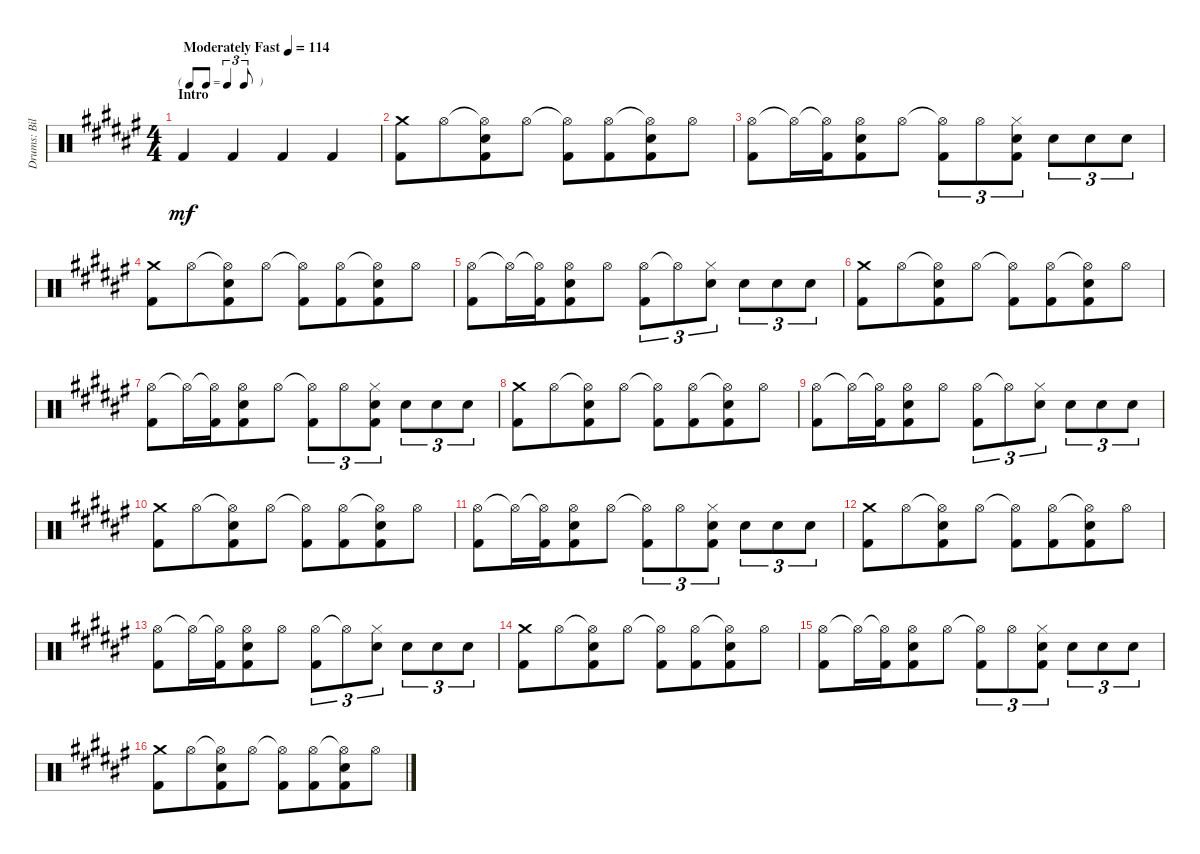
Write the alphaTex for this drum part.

\track ("Drums: Bill" "Drums: Bil") {instrument percussion}
\staff {score}
\articulation defaults
\ts (4 4)
\tf triplet8th
\section ("" "Intro")
\tempo (114 "Moderately Fast")
\clef neutral
\ks f# "Kick (hit) 2".4{dy mf} "Kick (hit) 2".4 "Kick (hit) 2".4 "Kick (hit) 2".4
|
("Crash medium (hit)" "Kick (hit) 2").8 "Hi-Hat (open)".8{beam merge} ("Hi-Hat (open)"{t} "Electric Snare (hit)" "Kick (hit) 2").8 "Hi-Hat (open)".8 ("Hi-Hat (open)"{t} "Kick (hit) 2").8 ("Hi-Hat (open)" "Kick (hit) 2").8{beam merge} ("Hi-Hat (open)"{t} "Electric Snare (hit)" "Kick (hit) 2").8 "Hi-Hat (open)".8 |
("Hi-Hat (open)" "Kick (hit) 2").8 "Hi-Hat (open)"{t}.16 ("Hi-Hat (open)"{t} "Kick (hit) 2").16{beam merge} ("Hi-Hat (open)" "Snare (hit) 2" "Kick (hit) 2").8 "Hi-Hat (open)".8 ("Hi-Hat (open)"{t} "Kick (hit) 2").8{tu (3 2)} "Hi-Hat (open)".8{tu (3 2)} ("Hi-Hat (closed)" "Electric Snare (hit)" "Kick (hit) 2").8{tu (3 2)} "Electric Snare (hit)".8{tu (3 2)} "Electric Snare (hit)".8{tu (3 2)} "Electric Snare (hit)".8{tu (3 2)} |
("Crash medium (hit)" "Kick (hit) 2").8 "Hi-Hat (open)".8{beam merge} ("Hi-Hat (open)"{t} "Electric Snare (hit)" "Kick (hit) 2").8 "Hi-Hat (open)".8 ("Hi-Hat (open)"{t} "Kick (hit) 2").8 ("Hi-Hat (open)" "Kick (hit) 2").8{beam merge} ("Hi-Hat (open)"{t} "Electric Snare (hit)" "Kick (hit) 2").8 "Hi-Hat (open)".8 |
("Hi-Hat (open)" "Kick (hit) 2").8 "Hi-Hat (open)"{t}.16 ("Hi-Hat (open)"{t} "Kick (hit) 2").16{beam merge} ("Hi-Hat (open)" "Snare (hit) 2" "Kick (hit) 2").8 "Hi-Hat (open)".8 ("Hi-Hat (open)" "Kick (hit) 2").8{tu (3 2)} "Hi-Hat (open)"{t}.8{tu (3 2)} ("Hi-Hat (closed)" "Electric Snare (hit)").8{tu (3 2)} "Electric Snare (hit)".8{tu (3 2)} "Electric Snare (hit)".8{tu (3 2)} "Electric Snare (hit)".8{tu (3 2)} |
("Crash medium (hit)" "Kick (hit) 2").8 "Hi-Hat (open)".8{beam merge} ("Hi-Hat (open)"{t} "Electric Snare (hit)" "Kick (hit) 2").8 "Hi-Hat (open)".8 ("Hi-Hat (open)"{t} "Kick (hit) 2").8 ("Hi-Hat (open)" "Kick (hit) 2").8{beam merge} ("Hi-Hat (open)"{t} "Electric Snare (hit)" "Kick (hit) 2").8 "Hi-Hat (open)".8 |
("Hi-Hat (open)" "Kick (hit) 2").8 "Hi-Hat (open)"{t}.16 ("Hi-Hat (open)"{t} "Kick (hit) 2").16{beam merge} ("Hi-Hat (open)" "Snare (hit) 2" "Kick (hit) 2").8 "Hi-Hat (open)".8 ("Hi-Hat (open)"{t} "Kick (hit) 2").8{tu (3 2)} "Hi-Hat (open)".8{tu (3 2)} ("Hi-Hat (closed)" "Electric Snare (hit)" "Kick (hit) 2").8{tu (3 2)} "Electric Snare (hit)".8{tu (3 2)} "Electric Snare (hit)".8{tu (3 2)} "Electric Snare (hit)".8{tu (3 2)} |
("Crash medium (hit)" "Kick (hit) 2").8 "Hi-Hat (open)".8{beam merge} ("Hi-Hat (open)"{t} "Electric Snare (hit)" "Kick (hit) 2").8 "Hi-Hat (open)".8 ("Hi-Hat (open)"{t} "Kick (hit) 2").8 ("Hi-Hat (open)" "Kick (hit) 2").8{beam merge} ("Hi-Hat (open)"{t} "Electric Snare (hit)" "Kick (hit) 2").8 "Hi-Hat (open)".8 |
("Hi-Hat (open)" "Kick (hit) 2").8 "Hi-Hat (open)"{t}.16 ("Hi-Hat (open)"{t} "Kick (hit) 2").16{beam merge} ("Hi-Hat (open)" "Snare (hit) 2" "Kick (hit) 2").8 "Hi-Hat (open)".8 ("Hi-Hat (open)" "Kick (hit) 2").8{tu (3 2)} "Hi-Hat (open)"{t}.8{tu (3 2)} ("Hi-Hat (closed)" "Electric Snare (hit)").8{tu (3 2)} "Electric Snare (hit)".8{tu (3 2)} "Electric Snare (hit)".8{tu (3 2)} "Electric Snare (hit)".8{tu (3 2)} |
("Crash medium (hit)" "Kick (hit) 2").8 "Hi-Hat (open)".8{beam merge} ("Hi-Hat (open)"{t} "Electric Snare (hit)" "Kick (hit) 2").8 "Hi-Hat (open)".8 ("Hi-Hat (open)"{t} "Kick (hit) 2").8 ("Hi-Hat (open)" "Kick (hit) 2").8{beam merge} ("Hi-Hat (open)"{t} "Electric Snare (hit)" "Kick (hit) 2").8 "Hi-Hat (open)".8 |
("Hi-Hat (open)" "Kick (hit) 2").8 "Hi-Hat (open)"{t}.16 ("Hi-Hat (open)"{t} "Kick (hit) 2").16{beam merge} ("Hi-Hat (open)" "Snare (hit) 2" "Kick (hit) 2").8 "Hi-Hat (open)".8 ("Hi-Hat (open)"{t} "Kick (hit) 2").8{tu (3 2)} "Hi-Hat (open)".8{tu (3 2)} ("Hi-Hat (closed)" "Electric Snare (hit)" "Kick (hit) 2").8{tu (3 2)} "Electric Snare (hit)".8{tu (3 2)} "Electric Snare (hit)".8{tu (3 2)} "Electric Snare (hit)".8{tu (3 2)} |
("Crash medium (hit)" "Kick (hit) 2").8 "Hi-Hat (open)".8{beam merge} ("Hi-Hat (open)"{t} "Electric Snare (hit)" "Kick (hit) 2").8 "Hi-Hat (open)".8 ("Hi-Hat (open)"{t} "Kick (hit) 2").8 ("Hi-Hat (open)" "Kick (hit) 2").8{beam merge} ("Hi-Hat (open)"{t} "Electric Snare (hit)" "Kick (hit) 2").8 "Hi-Hat (open)".8 |
("Hi-Hat (open)" "Kick (hit) 2").8 "Hi-Hat (open)"{t}.16 ("Hi-Hat (open)"{t} "Kick (hit) 2").16{beam merge} ("Hi-Hat (open)" "Snare (hit) 2" "Kick (hit) 2").8 "Hi-Hat (open)".8 ("Hi-Hat (open)" "Kick (hit) 2").8{tu (3 2)} "Hi-Hat (open)"{t}.8{tu (3 2)} ("Hi-Hat (closed)" "Electric Snare (hit)").8{tu (3 2)} "Electric Snare (hit)".8{tu (3 2)} "Electric Snare (hit)".8{tu (3 2)} "Electric Snare (hit)".8{tu (3 2)} |
("Crash medium (hit)" "Kick (hit) 2").8 "Hi-Hat (open)".8{beam merge} ("Hi-Hat (open)"{t} "Electric Snare (hit)" "Kick (hit) 2").8 "Hi-Hat (open)".8 ("Hi-Hat (open)"{t} "Kick (hit) 2").8 ("Hi-Hat (open)" "Kick (hit) 2").8{beam merge} ("Hi-Hat (open)"{t} "Electric Snare (hit)" "Kick (hit) 2").8 "Hi-Hat (open)".8 |
("Hi-Hat (open)" "Kick (hit) 2").8 "Hi-Hat (open)"{t}.16 ("Hi-Hat (open)"{t} "Kick (hit) 2").16{beam merge} ("Hi-Hat (open)" "Snare (hit) 2" "Kick (hit) 2").8 "Hi-Hat (open)".8 ("Hi-Hat (open)"{t} "Kick (hit) 2").8{tu (3 2)} "Hi-Hat (open)".8{tu (3 2)} ("Hi-Hat (closed)" "Electric Snare (hit)" "Kick (hit) 2").8{tu (3 2)} "Electric Snare (hit)".8{tu (3 2)} "Electric Snare (hit)".8{tu (3 2)} "Electric Snare (hit)".8{tu (3 2)} |
("Crash medium (hit)" "Kick (hit) 2").8 "Hi-Hat (open)".8{beam merge} ("Hi-Hat (open)"{t} "Electric Snare (hit)" "Kick (hit) 2").8 "Hi-Hat (open)".8 ("Hi-Hat (open)"{t} "Kick (hit) 2").8 ("Hi-Hat (open)" "Kick (hit) 2").8{beam merge} ("Hi-Hat (open)"{t} "Electric Snare (hit)" "Kick (hit) 2").8 "Hi-Hat (open)".8
